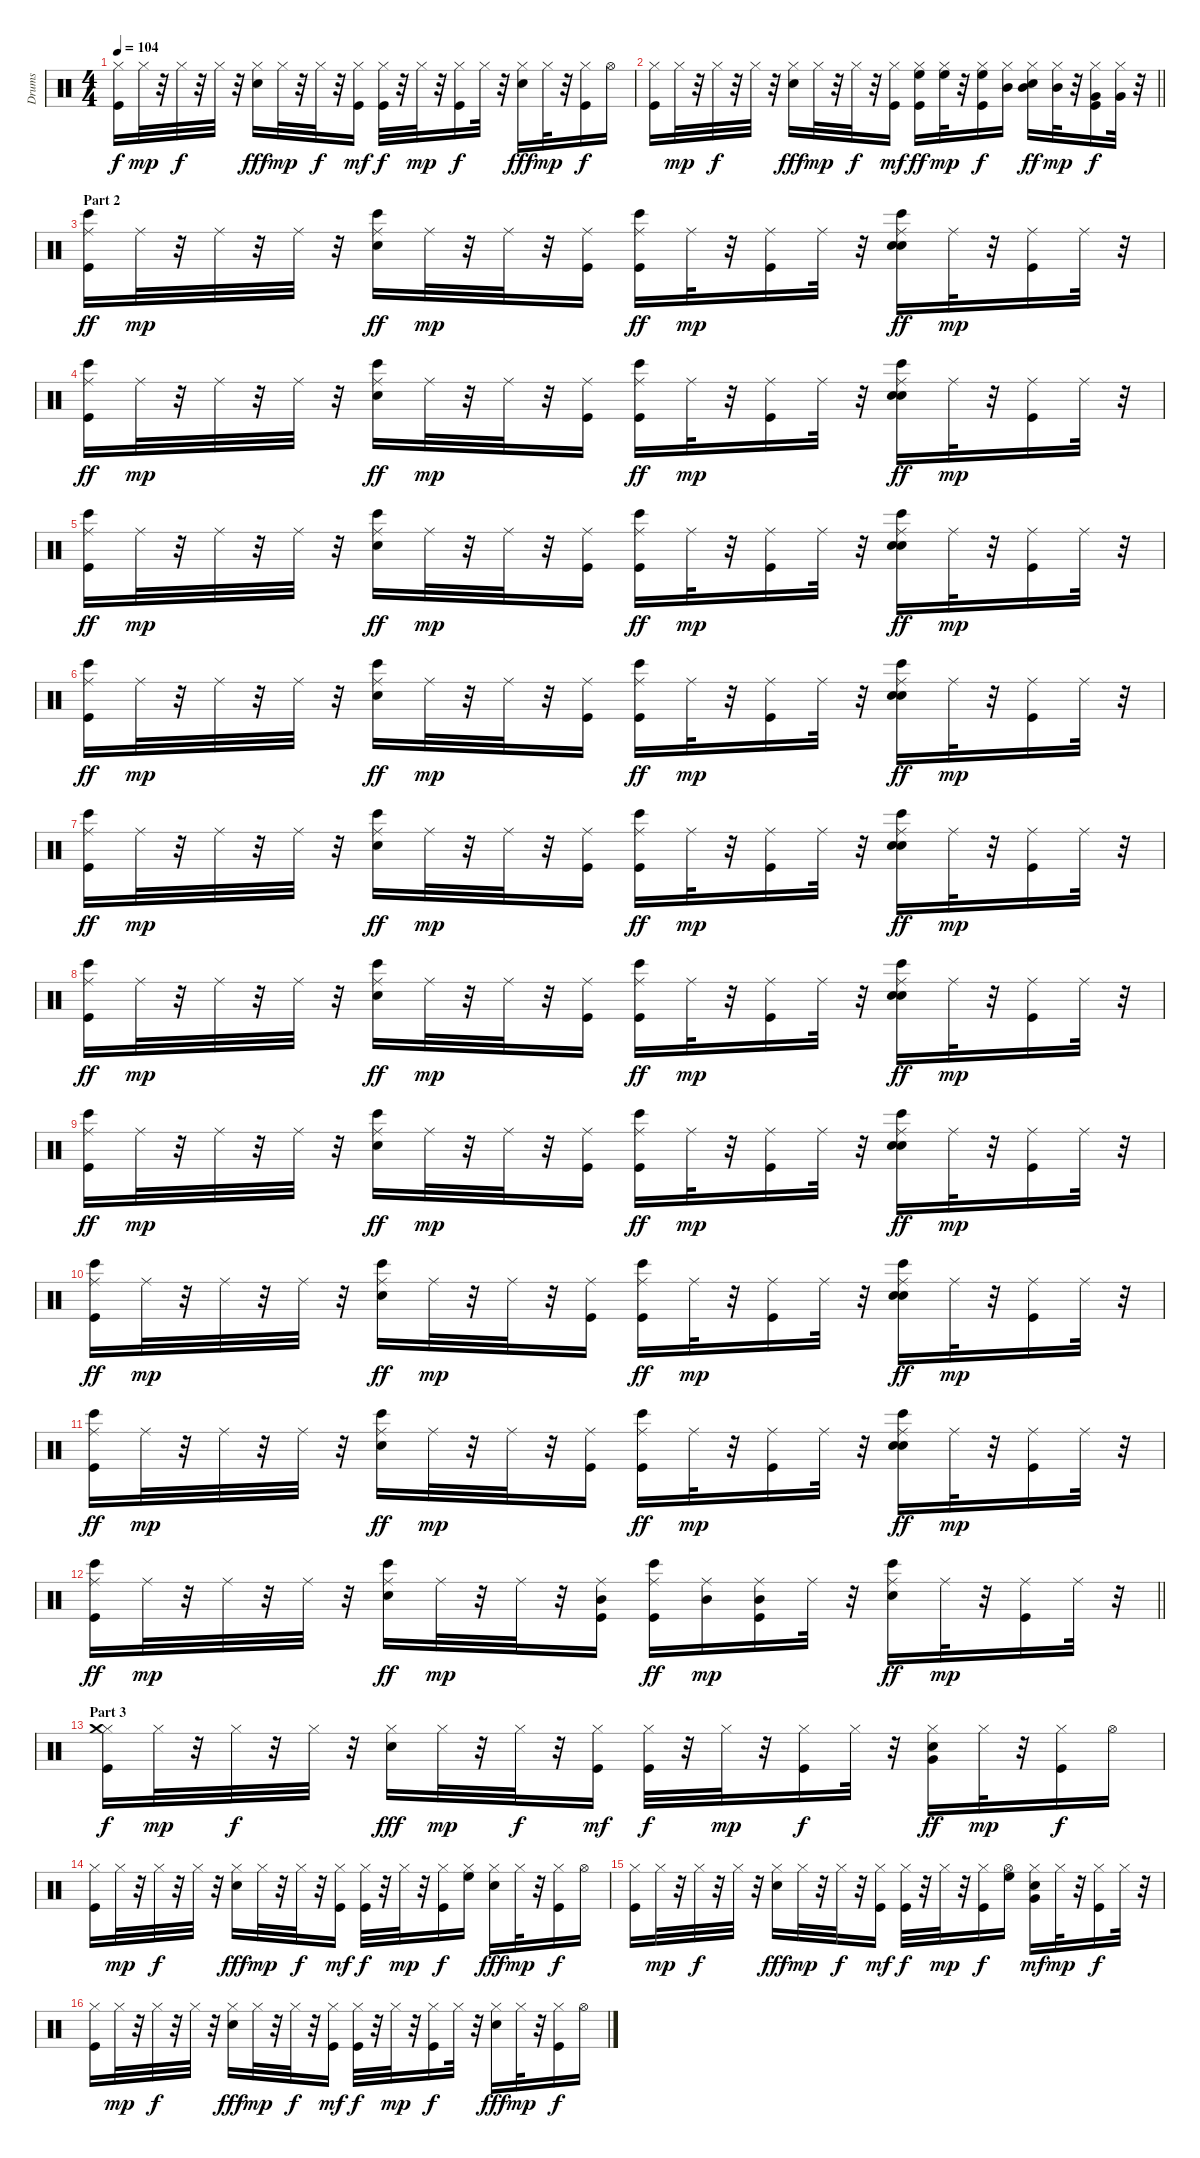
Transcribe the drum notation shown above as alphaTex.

\track ("Drums   " "Drums   ") {instrument percussion}
\staff {score}
\articulation defaults
\ts (4 4)
\tempo 104
\clef neutral
\ks c
("Kick (hit)" "Hi-Hat (closed)").16{dy f} "Hi-Hat (closed)".32{dy mp} r.32 "Hi-Hat (closed)".32{dy f} r.32 "Hi-Hat (closed)".32 r.32 ("Electric Snare (hit)" "Hi-Hat (closed)").16{dy fff} "Hi-Hat (closed)".32{dy mp} r.32 "Hi-Hat (closed)".32{dy f} r.32 ("Kick (hit)" "Hi-Hat (closed)").16{dy mf} ("Kick (hit)" "Hi-Hat (closed)").32{dy f} r.32 "Hi-Hat (closed)".32{dy mp} r.32 ("Kick (hit)" "Hi-Hat (closed)").16{dy f} "Hi-Hat (closed)".32 r.32 ("Electric Snare (hit)" "Hi-Hat (closed)").16{dy fff} "Hi-Hat (closed)".32{dy mp} r.32 ("Kick (hit)" "Hi-Hat (closed)").16{dy f} "Hi-Hat (open)".16 |
\barLineRight lightlight
("Kick (hit)" "Hi-Hat (closed)").16 "Hi-Hat (closed)".32{dy mp} r.32 "Hi-Hat (closed)".32{dy f} r.32 "Hi-Hat (closed)".32 r.32 ("Electric Snare (hit)" "Hi-Hat (closed)").16{dy fff} "Hi-Hat (closed)".32{dy mp} r.32 "Hi-Hat (closed)".32{dy f} r.32 ("Kick (hit)" "Hi-Hat (closed)").16{dy mf} ("Kick (hit)" "Hi-Hat (closed)" "High Floor Tom (hit)").16{dy ff} ("Hi-Hat (closed)" "High Floor Tom (hit)").32{dy mp} r.32 ("Kick (hit)" "Hi-Hat (closed)" "High Floor Tom (hit)").16{dy f} ("Hi-Hat (closed)" "Mid Tom (hit)").16 ("Electric Snare (hit)" "Hi-Hat (closed)" "Mid Tom (hit)").16{dy ff} ("Hi-Hat (closed)" "Mid Tom (hit)").32{dy mp} r.32 ("Kick (hit)" "Hi-Hat (closed)" "Very Low Tom (hit)").16{dy f} ("Hi-Hat (closed)" "Very Low Tom (hit)").32 r.32 |
\section ("" "Part 2")
("Kick (hit)" "Ride (middle)" "Bongo High (hit)").16{dy ff} "Ride (middle)".32{dy mp} r.32 "Ride (middle)".32 r.32 "Ride (middle)".32 r.32 ("Electric Snare (hit)" "Ride (middle)" "Bongo High (hit)").16{dy ff} "Ride (middle)".32{dy mp} r.32 "Ride (middle)".32 r.32 ("Kick (hit)" "Ride (middle)").16 ("Kick (hit)" "Ride (middle)" "Bongo High (hit)").16{dy ff} "Ride (middle)".32{dy mp} r.32 ("Kick (hit)" "Ride (middle)").16 "Ride (middle)".32 r.32 ("Hand Clap (hit)" "Electric Snare (hit)" "Ride (middle)" "Bongo High (hit)").16{dy ff} "Ride (middle)".32{dy mp} r.32 ("Kick (hit)" "Ride (middle)").16 "Ride (middle)".32 r.32 |
("Kick (hit)" "Ride (middle)" "Bongo High (hit)").16{dy ff} "Ride (middle)".32{dy mp} r.32 "Ride (middle)".32 r.32 "Ride (middle)".32 r.32 ("Electric Snare (hit)" "Ride (middle)" "Bongo High (hit)").16{dy ff} "Ride (middle)".32{dy mp} r.32 "Ride (middle)".32 r.32 ("Kick (hit)" "Ride (middle)").16 ("Kick (hit)" "Ride (middle)" "Bongo High (hit)").16{dy ff} "Ride (middle)".32{dy mp} r.32 ("Kick (hit)" "Ride (middle)").16 "Ride (middle)".32 r.32 ("Hand Clap (hit)" "Electric Snare (hit)" "Ride (middle)" "Bongo High (hit)").16{dy ff} "Ride (middle)".32{dy mp} r.32 ("Kick (hit)" "Ride (middle)").16 "Ride (middle)".32 r.32 |
("Kick (hit)" "Ride (middle)" "Bongo High (hit)").16{dy ff} "Ride (middle)".32{dy mp} r.32 "Ride (middle)".32 r.32 "Ride (middle)".32 r.32 ("Electric Snare (hit)" "Ride (middle)" "Bongo High (hit)").16{dy ff} "Ride (middle)".32{dy mp} r.32 "Ride (middle)".32 r.32 ("Kick (hit)" "Ride (middle)").16 ("Kick (hit)" "Ride (middle)" "Bongo High (hit)").16{dy ff} "Ride (middle)".32{dy mp} r.32 ("Kick (hit)" "Ride (middle)").16 "Ride (middle)".32 r.32 ("Hand Clap (hit)" "Electric Snare (hit)" "Ride (middle)" "Bongo High (hit)").16{dy ff} "Ride (middle)".32{dy mp} r.32 ("Kick (hit)" "Ride (middle)").16 "Ride (middle)".32 r.32 |
("Kick (hit)" "Ride (middle)" "Bongo High (hit)").16{dy ff} "Ride (middle)".32{dy mp} r.32 "Ride (middle)".32 r.32 "Ride (middle)".32 r.32 ("Electric Snare (hit)" "Ride (middle)" "Bongo High (hit)").16{dy ff} "Ride (middle)".32{dy mp} r.32 "Ride (middle)".32 r.32 ("Kick (hit)" "Ride (middle)").16 ("Kick (hit)" "Ride (middle)" "Bongo High (hit)").16{dy ff} "Ride (middle)".32{dy mp} r.32 ("Kick (hit)" "Ride (middle)").16 "Ride (middle)".32 r.32 ("Hand Clap (hit)" "Electric Snare (hit)" "Ride (middle)" "Bongo High (hit)").16{dy ff} "Ride (middle)".32{dy mp} r.32 ("Kick (hit)" "Ride (middle)").16 "Ride (middle)".32 r.32 |
("Kick (hit)" "Ride (middle)" "Bongo High (hit)").16{dy ff} "Ride (middle)".32{dy mp} r.32 "Ride (middle)".32 r.32 "Ride (middle)".32 r.32 ("Electric Snare (hit)" "Ride (middle)" "Bongo High (hit)").16{dy ff} "Ride (middle)".32{dy mp} r.32 "Ride (middle)".32 r.32 ("Kick (hit)" "Ride (middle)").16 ("Kick (hit)" "Ride (middle)" "Bongo High (hit)").16{dy ff} "Ride (middle)".32{dy mp} r.32 ("Kick (hit)" "Ride (middle)").16 "Ride (middle)".32 r.32 ("Hand Clap (hit)" "Electric Snare (hit)" "Ride (middle)" "Bongo High (hit)").16{dy ff} "Ride (middle)".32{dy mp} r.32 ("Kick (hit)" "Ride (middle)").16 "Ride (middle)".32 r.32 |
("Kick (hit)" "Ride (middle)" "Bongo High (hit)").16{dy ff} "Ride (middle)".32{dy mp} r.32 "Ride (middle)".32 r.32 "Ride (middle)".32 r.32 ("Electric Snare (hit)" "Ride (middle)" "Bongo High (hit)").16{dy ff} "Ride (middle)".32{dy mp} r.32 "Ride (middle)".32 r.32 ("Kick (hit)" "Ride (middle)").16 ("Kick (hit)" "Ride (middle)" "Bongo High (hit)").16{dy ff} "Ride (middle)".32{dy mp} r.32 ("Kick (hit)" "Ride (middle)").16 "Ride (middle)".32 r.32 ("Hand Clap (hit)" "Electric Snare (hit)" "Ride (middle)" "Bongo High (hit)").16{dy ff} "Ride (middle)".32{dy mp} r.32 ("Kick (hit)" "Ride (middle)").16 "Ride (middle)".32 r.32 |
("Kick (hit)" "Ride (middle)" "Bongo High (hit)").16{dy ff} "Ride (middle)".32{dy mp} r.32 "Ride (middle)".32 r.32 "Ride (middle)".32 r.32 ("Electric Snare (hit)" "Ride (middle)" "Bongo High (hit)").16{dy ff} "Ride (middle)".32{dy mp} r.32 "Ride (middle)".32 r.32 ("Kick (hit)" "Ride (middle)").16 ("Kick (hit)" "Ride (middle)" "Bongo High (hit)").16{dy ff} "Ride (middle)".32{dy mp} r.32 ("Kick (hit)" "Ride (middle)").16 "Ride (middle)".32 r.32 ("Hand Clap (hit)" "Electric Snare (hit)" "Ride (middle)" "Bongo High (hit)").16{dy ff} "Ride (middle)".32{dy mp} r.32 ("Kick (hit)" "Ride (middle)").16 "Ride (middle)".32 r.32 |
("Kick (hit)" "Ride (middle)" "Bongo High (hit)").16{dy ff} "Ride (middle)".32{dy mp} r.32 "Ride (middle)".32 r.32 "Ride (middle)".32 r.32 ("Electric Snare (hit)" "Ride (middle)" "Bongo High (hit)").16{dy ff} "Ride (middle)".32{dy mp} r.32 "Ride (middle)".32 r.32 ("Kick (hit)" "Ride (middle)").16 ("Kick (hit)" "Ride (middle)" "Bongo High (hit)").16{dy ff} "Ride (middle)".32{dy mp} r.32 ("Kick (hit)" "Ride (middle)").16 "Ride (middle)".32 r.32 ("Hand Clap (hit)" "Electric Snare (hit)" "Ride (middle)" "Bongo High (hit)").16{dy ff} "Ride (middle)".32{dy mp} r.32 ("Kick (hit)" "Ride (middle)").16 "Ride (middle)".32 r.32 |
("Kick (hit)" "Ride (middle)" "Bongo High (hit)").16{dy ff} "Ride (middle)".32{dy mp} r.32 "Ride (middle)".32 r.32 "Ride (middle)".32 r.32 ("Electric Snare (hit)" "Ride (middle)" "Bongo High (hit)").16{dy ff} "Ride (middle)".32{dy mp} r.32 "Ride (middle)".32 r.32 ("Kick (hit)" "Ride (middle)").16 ("Kick (hit)" "Ride (middle)" "Bongo High (hit)").16{dy ff} "Ride (middle)".32{dy mp} r.32 ("Kick (hit)" "Ride (middle)").16 "Ride (middle)".32 r.32 ("Hand Clap (hit)" "Electric Snare (hit)" "Ride (middle)" "Bongo High (hit)").16{dy ff} "Ride (middle)".32{dy mp} r.32 ("Kick (hit)" "Ride (middle)").16 "Ride (middle)".32 r.32 |
\barLineRight lightlight
("Kick (hit)" "Ride (middle)" "Bongo High (hit)").16{dy ff} "Ride (middle)".32{dy mp} r.32 "Ride (middle)".32 r.32 "Ride (middle)".32 r.32 ("Electric Snare (hit)" "Ride (middle)" "Bongo High (hit)").16{dy ff} "Ride (middle)".32{dy mp} r.32 "Ride (middle)".32 r.32 ("Kick (hit)" "Mid Tom (hit)" "Ride (middle)").16 ("Kick (hit)" "Ride (middle)" "Bongo High (hit)").16{dy ff} ("Mid Tom (hit)" "Ride (middle)").16{dy mp} ("Kick (hit)" "Mid Tom (hit)" "Ride (middle)").16 "Ride (middle)".32 r.32 ("Electric Snare (hit)" "Ride (middle)" "Bongo High (hit)").16{dy ff} "Ride (middle)".32{dy mp} r.32 ("Kick (hit)" "Ride (middle)").16 "Ride (middle)".32 r.32 |
\section ("" "Part 3")
("Kick (hit)" "Hi-Hat (closed)" "Crash medium (hit)").16{dy f} "Hi-Hat (closed)".32{dy mp} r.32 "Hi-Hat (closed)".32{dy f} r.32 "Hi-Hat (closed)".32 r.32 ("Electric Snare (hit)" "Hi-Hat (closed)").16{dy fff} "Hi-Hat (closed)".32{dy mp} r.32 "Hi-Hat (closed)".32{dy f} r.32 ("Kick (hit)" "Hi-Hat (closed)").16{dy mf} ("Kick (hit)" "Hi-Hat (closed)").32{dy f} r.32 "Hi-Hat (closed)".32{dy mp} r.32 ("Kick (hit)" "Hi-Hat (closed)").16{dy f} "Hi-Hat (closed)".32 r.32 ("Electric Snare (hit)" "Hi-Hat (closed)" "Very Low Tom (hit)").16{dy ff} "Hi-Hat (closed)".32{dy mp} r.32 ("Kick (hit)" "Hi-Hat (closed)").16{dy f} "Hi-Hat (open)".16 |
("Kick (hit)" "Hi-Hat (closed)").16 "Hi-Hat (closed)".32{dy mp} r.32 "Hi-Hat (closed)".32{dy f} r.32 "Hi-Hat (closed)".32 r.32 ("Electric Snare (hit)" "Hi-Hat (closed)").16{dy fff} "Hi-Hat (closed)".32{dy mp} r.32 "Hi-Hat (closed)".32{dy f} r.32 ("Kick (hit)" "Hi-Hat (closed)").16{dy mf} ("Kick (hit)" "Hi-Hat (closed)").32{dy f} r.32 "Hi-Hat (closed)".32{dy mp} r.32 ("Kick (hit)" "Hi-Hat (closed)").16{dy f} ("Hi-Hat (closed)" "High Floor Tom (hit)").16 ("Electric Snare (hit)" "Hi-Hat (closed)").16{dy fff} "Hi-Hat (closed)".32{dy mp} r.32 ("Kick (hit)" "Hi-Hat (closed)").16{dy f} "Hi-Hat (open)".16 |
("Kick (hit)" "Hi-Hat (closed)").16 "Hi-Hat (closed)".32{dy mp} r.32 "Hi-Hat (closed)".32{dy f} r.32 "Hi-Hat (closed)".32 r.32 ("Electric Snare (hit)" "Hi-Hat (closed)").16{dy fff} "Hi-Hat (closed)".32{dy mp} r.32 "Hi-Hat (closed)".32{dy f} r.32 ("Kick (hit)" "Hi-Hat (closed)").16{dy mf} ("Kick (hit)" "Hi-Hat (closed)").32{dy f} r.32 "Hi-Hat (closed)".32{dy mp} r.32 ("Kick (hit)" "Hi-Hat (closed)").16{dy f} ("Hi-Hat (open)" "High Floor Tom (hit)").16 ("Electric Snare (hit)" "Hi-Hat (closed)" "Very Low Tom (hit)").16{dy mf} "Hi-Hat (closed)".32{dy mp} r.32 ("Kick (hit)" "Hi-Hat (closed)").16{dy f} "Hi-Hat (closed)".32 r.32 |
("Kick (hit)" "Hi-Hat (closed)").16 "Hi-Hat (closed)".32{dy mp} r.32 "Hi-Hat (closed)".32{dy f} r.32 "Hi-Hat (closed)".32 r.32 ("Electric Snare (hit)" "Hi-Hat (closed)").16{dy fff} "Hi-Hat (closed)".32{dy mp} r.32 "Hi-Hat (closed)".32{dy f} r.32 ("Kick (hit)" "Hi-Hat (closed)").16{dy mf} ("Kick (hit)" "Hi-Hat (closed)").32{dy f} r.32 "Hi-Hat (closed)".32{dy mp} r.32 ("Kick (hit)" "Hi-Hat (closed)").16{dy f} "Hi-Hat (closed)".32 r.32 ("Electric Snare (hit)" "Hi-Hat (closed)").16{dy fff} "Hi-Hat (closed)".32{dy mp} r.32 ("Kick (hit)" "Hi-Hat (closed)").16{dy f} "Hi-Hat (open)".16
